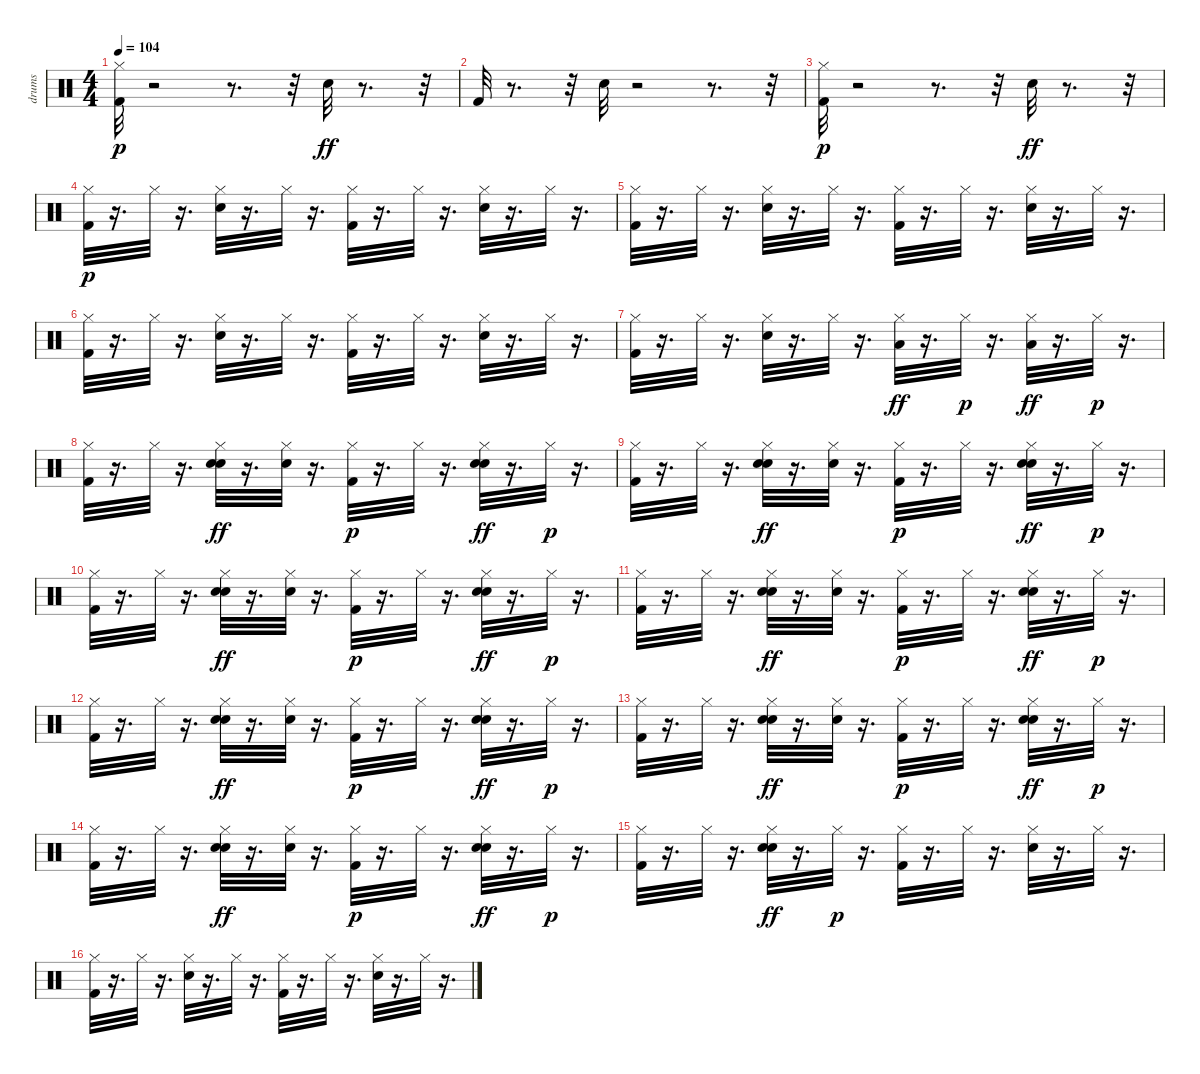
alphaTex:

\track ("drums" "drums") {instrument percussion}
\staff {score}
\articulation defaults
\ts (4 4)
\tempo 104
\clef neutral
\ks c
("Kick (hit) 2" "Hi-Hat (closed)").32{dy p} r.2 r.8{d} r.32 "Snare (hit) 2".32{dy ff} r.8{d} r.32 |
"Kick (hit) 2".32 r.8{d} r.32 "Snare (hit) 2".32 r.2 r.8{d} r.32 |
("Kick (hit) 2" "Hi-Hat (closed)").32{dy p} r.2 r.8{d} r.32 "Snare (hit) 2".32{dy ff} r.8{d} r.32 |
("Kick (hit) 2" "Hi-Hat (closed)").32{dy p} r.16{d} "Hi-Hat (closed)".32 r.16{d} ("Snare (hit) 2" "Hi-Hat (closed)").32 r.16{d} "Hi-Hat (closed)".32 r.16{d} ("Kick (hit) 2" "Hi-Hat (closed)").32 r.16{d} "Hi-Hat (closed)".32 r.16{d} ("Snare (hit) 2" "Hi-Hat (closed)").32 r.16{d} "Hi-Hat (closed)".32 r.16{d} |
("Kick (hit) 2" "Hi-Hat (closed)").32 r.16{d} "Hi-Hat (closed)".32 r.16{d} ("Snare (hit) 2" "Hi-Hat (closed)").32 r.16{d} "Hi-Hat (closed)".32 r.16{d} ("Kick (hit) 2" "Hi-Hat (closed)").32 r.16{d} "Hi-Hat (closed)".32 r.16{d} ("Snare (hit) 2" "Hi-Hat (closed)").32 r.16{d} "Hi-Hat (closed)".32 r.16{d} |
("Kick (hit) 2" "Hi-Hat (closed)").32 r.16{d} "Hi-Hat (closed)".32 r.16{d} ("Snare (hit) 2" "Hi-Hat (closed)").32 r.16{d} "Hi-Hat (closed)".32 r.16{d} ("Kick (hit) 2" "Hi-Hat (closed)").32 r.16{d} "Hi-Hat (closed)".32 r.16{d} ("Snare (hit) 2" "Hi-Hat (closed)").32 r.16{d} "Hi-Hat (closed)".32 r.16{d} |
("Kick (hit) 2" "Hi-Hat (closed)").32 r.16{d} "Hi-Hat (closed)".32 r.16{d} ("Snare (hit) 2" "Hi-Hat (closed)").32 r.16{d} "Hi-Hat (closed)".32 r.16{d} ("Hi-Hat (closed)" "Low Tom (hit)").32{dy ff} r.16{d} "Hi-Hat (closed)".32{dy p} r.16{d} ("Hi-Hat (closed)" "Low Tom (hit)").32{dy ff} r.16{d} "Hi-Hat (closed)".32{dy p} r.16{d} |
("Kick (hit) 2" "Hi-Hat (closed)").32 r.16{d} "Hi-Hat (closed)".32 r.16{d} ("Snare (hit) 2" "Hi-Hat (closed)" "Hand Clap (hit)").32{dy ff} r.16{d} ("Hi-Hat (closed)" "Hand Clap (hit)").32 r.16{d} ("Kick (hit) 2" "Hi-Hat (closed)").32{dy p} r.16{d} "Hi-Hat (closed)".32 r.16{d} ("Snare (hit) 2" "Hi-Hat (closed)" "Hand Clap (hit)").32{dy ff} r.16{d} "Hi-Hat (closed)".32{dy p} r.16{d} |
("Kick (hit) 2" "Hi-Hat (closed)").32 r.16{d} "Hi-Hat (closed)".32 r.16{d} ("Snare (hit) 2" "Hi-Hat (closed)" "Hand Clap (hit)").32{dy ff} r.16{d} ("Hi-Hat (closed)" "Hand Clap (hit)").32 r.16{d} ("Kick (hit) 2" "Hi-Hat (closed)").32{dy p} r.16{d} "Hi-Hat (closed)".32 r.16{d} ("Snare (hit) 2" "Hi-Hat (closed)" "Hand Clap (hit)").32{dy ff} r.16{d} "Hi-Hat (closed)".32{dy p} r.16{d} |
("Kick (hit) 2" "Hi-Hat (closed)").32 r.16{d} "Hi-Hat (closed)".32 r.16{d} ("Snare (hit) 2" "Hi-Hat (closed)" "Hand Clap (hit)").32{dy ff} r.16{d} ("Hi-Hat (closed)" "Hand Clap (hit)").32 r.16{d} ("Kick (hit) 2" "Hi-Hat (closed)").32{dy p} r.16{d} "Hi-Hat (closed)".32 r.16{d} ("Snare (hit) 2" "Hi-Hat (closed)" "Hand Clap (hit)").32{dy ff} r.16{d} "Hi-Hat (closed)".32{dy p} r.16{d} |
("Kick (hit) 2" "Hi-Hat (closed)").32 r.16{d} "Hi-Hat (closed)".32 r.16{d} ("Snare (hit) 2" "Hi-Hat (closed)" "Hand Clap (hit)").32{dy ff} r.16{d} ("Hi-Hat (closed)" "Hand Clap (hit)").32 r.16{d} ("Kick (hit) 2" "Hi-Hat (closed)").32{dy p} r.16{d} "Hi-Hat (closed)".32 r.16{d} ("Snare (hit) 2" "Hi-Hat (closed)" "Hand Clap (hit)").32{dy ff} r.16{d} "Hi-Hat (closed)".32{dy p} r.16{d} |
("Kick (hit) 2" "Hi-Hat (closed)").32 r.16{d} "Hi-Hat (closed)".32 r.16{d} ("Snare (hit) 2" "Hi-Hat (closed)" "Hand Clap (hit)").32{dy ff} r.16{d} ("Hi-Hat (closed)" "Hand Clap (hit)").32 r.16{d} ("Kick (hit) 2" "Hi-Hat (closed)").32{dy p} r.16{d} "Hi-Hat (closed)".32 r.16{d} ("Snare (hit) 2" "Hi-Hat (closed)" "Hand Clap (hit)").32{dy ff} r.16{d} "Hi-Hat (closed)".32{dy p} r.16{d} |
("Kick (hit) 2" "Hi-Hat (closed)").32 r.16{d} "Hi-Hat (closed)".32 r.16{d} ("Snare (hit) 2" "Hi-Hat (closed)" "Hand Clap (hit)").32{dy ff} r.16{d} ("Hi-Hat (closed)" "Hand Clap (hit)").32 r.16{d} ("Kick (hit) 2" "Hi-Hat (closed)").32{dy p} r.16{d} "Hi-Hat (closed)".32 r.16{d} ("Snare (hit) 2" "Hi-Hat (closed)" "Hand Clap (hit)").32{dy ff} r.16{d} "Hi-Hat (closed)".32{dy p} r.16{d} |
("Kick (hit) 2" "Hi-Hat (closed)").32 r.16{d} "Hi-Hat (closed)".32 r.16{d} ("Snare (hit) 2" "Hi-Hat (closed)" "Hand Clap (hit)").32{dy ff} r.16{d} ("Hi-Hat (closed)" "Hand Clap (hit)").32 r.16{d} ("Kick (hit) 2" "Hi-Hat (closed)").32{dy p} r.16{d} "Hi-Hat (closed)".32 r.16{d} ("Snare (hit) 2" "Hi-Hat (closed)" "Hand Clap (hit)").32{dy ff} r.16{d} "Hi-Hat (closed)".32{dy p} r.16{d} |
("Kick (hit) 2" "Hi-Hat (closed)").32 r.16{d} "Hi-Hat (closed)".32 r.16{d} ("Snare (hit) 2" "Hi-Hat (closed)" "Hand Clap (hit)").32{dy ff} r.16{d} "Hi-Hat (closed)".32{dy p} r.16{d} ("Kick (hit) 2" "Hi-Hat (closed)").32 r.16{d} "Hi-Hat (closed)".32 r.16{d} ("Snare (hit) 2" "Hi-Hat (closed)").32 r.16{d} "Hi-Hat (closed)".32 r.16{d} |
("Kick (hit) 2" "Hi-Hat (closed)").32 r.16{d} "Hi-Hat (closed)".32 r.16{d} ("Snare (hit) 2" "Hi-Hat (closed)").32 r.16{d} "Hi-Hat (closed)".32 r.16{d} ("Kick (hit) 2" "Hi-Hat (closed)").32 r.16{d} "Hi-Hat (closed)".32 r.16{d} ("Snare (hit) 2" "Hi-Hat (closed)").32 r.16{d} "Hi-Hat (closed)".32 r.16{d}
